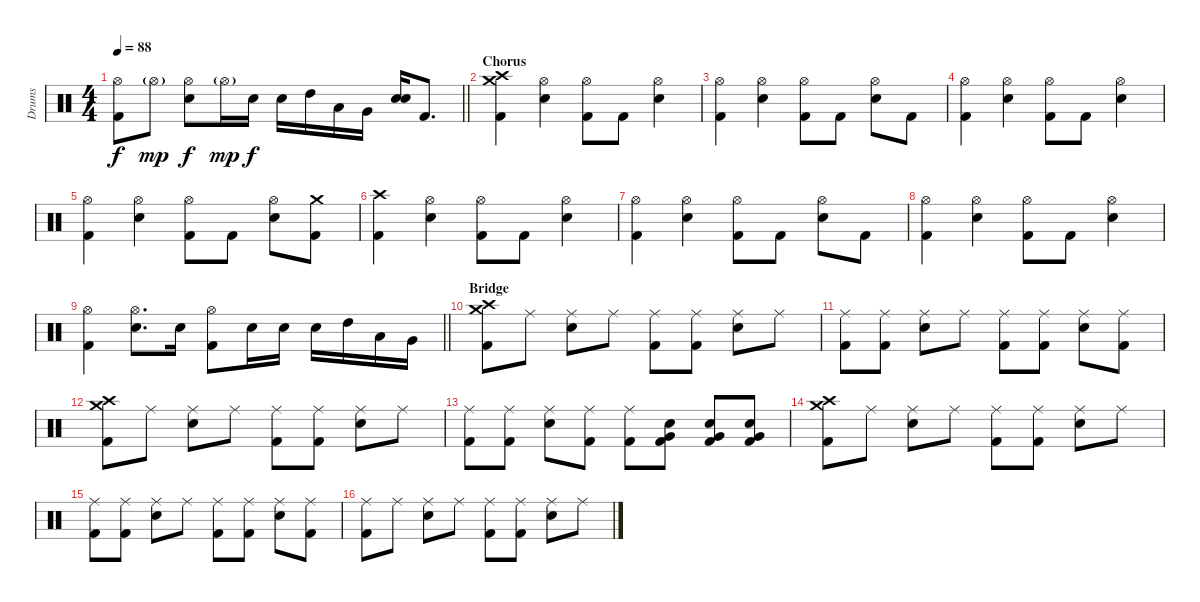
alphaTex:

\track ("Drums" "Drums") {instrument percussion}
\staff {score}
\articulation defaults
\ts (4 4)
\tempo 88
\clef neutral
\barLineRight lightlight
\ks c
("Kick (hit) 2" "Hi-Hat (open)").8{dy f} "Hi-Hat (open)"{g}.8{dy mp} ("Electric Snare (hit)" "Hi-Hat (open)").8{dy f} "Hi-Hat (open)"{g}.16{dy mp} "Electric Snare (hit)".16{dy f} "Electric Snare (hit)".16 "High Tom (hit)".16 "Low Tom (hit)".16 "Very Low Tom (hit)".16 ("Electric Snare (hit)" "Electric Snare (hit)").16 "Kick (hit) 2".8{d} |
\section ("" "Chorus")
("Kick (hit) 2" "Crash high (hit)" "Crash medium (hit)").4 ("Electric Snare (hit)" "Hi-Hat (open)").4 ("Kick (hit) 2" "Hi-Hat (open)").8 "Kick (hit) 2".8 ("Electric Snare (hit)" "Hi-Hat (open)").4 |
("Kick (hit) 2" "Hi-Hat (open)").4 ("Electric Snare (hit)" "Hi-Hat (open)").4 ("Kick (hit) 2" "Hi-Hat (open)").8 "Kick (hit) 2".8 ("Electric Snare (hit)" "Hi-Hat (open)").8 "Kick (hit) 2".8 |
("Kick (hit) 2" "Hi-Hat (open)").4 ("Electric Snare (hit)" "Hi-Hat (open)").4 ("Kick (hit) 2" "Hi-Hat (open)").8 "Kick (hit) 2".8 ("Electric Snare (hit)" "Hi-Hat (open)").4 |
("Kick (hit) 2" "Hi-Hat (open)").4 ("Electric Snare (hit)" "Hi-Hat (open)").4 ("Kick (hit) 2" "Hi-Hat (open)").8 "Kick (hit) 2".8 ("Electric Snare (hit)" "Hi-Hat (open)").8 ("Kick (hit) 2" "Crash medium (hit)").8 |
("Kick (hit) 2" "Crash high (hit)").4 ("Electric Snare (hit)" "Hi-Hat (open)").4 ("Kick (hit) 2" "Hi-Hat (open)").8 "Kick (hit) 2".8 ("Electric Snare (hit)" "Hi-Hat (open)").4 |
("Kick (hit) 2" "Hi-Hat (open)").4 ("Electric Snare (hit)" "Hi-Hat (open)").4 ("Kick (hit) 2" "Hi-Hat (open)").8 "Kick (hit) 2".8 ("Electric Snare (hit)" "Hi-Hat (open)").8 "Kick (hit) 2".8 |
("Kick (hit) 2" "Hi-Hat (open)").4 ("Electric Snare (hit)" "Hi-Hat (open)").4 ("Kick (hit) 2" "Hi-Hat (open)").8 "Kick (hit) 2".8 ("Electric Snare (hit)" "Hi-Hat (open)").4 |
\barLineRight lightlight
("Kick (hit) 2" "Hi-Hat (open)").4 ("Electric Snare (hit)" "Hi-Hat (open)").8{d} "Electric Snare (hit)".16 ("Kick (hit) 2" "Hi-Hat (open)").8 "Electric Snare (hit)".16 "Electric Snare (hit)".16 "Electric Snare (hit)".16 "High Tom (hit)".16 "Low Tom (hit)".16 "Very Low Tom (hit)".16 |
\section ("" "Bridge")
("Kick (hit) 2" "Crash high (hit)" "Crash medium (hit)").8 "Ride (middle)".8 ("Electric Snare (hit)" "Ride (middle)").8 "Ride (middle)".8 ("Kick (hit) 2" "Ride (middle)").8 ("Kick (hit) 2" "Ride (middle)").8 ("Electric Snare (hit)" "Ride (middle)").8 "Ride (middle)".8 |
("Kick (hit) 2" "Ride (middle)").8 ("Kick (hit) 2" "Ride (middle)").8 ("Electric Snare (hit)" "Ride (middle)").8 "Ride (middle)".8 ("Kick (hit) 2" "Ride (middle)").8 ("Kick (hit) 2" "Ride (middle)").8 ("Electric Snare (hit)" "Ride (middle)").8 ("Kick (hit) 2" "Ride (middle)").8 |
("Kick (hit) 2" "Crash high (hit)" "Crash medium (hit)").8 "Ride (middle)".8 ("Electric Snare (hit)" "Ride (middle)").8 "Ride (middle)".8 ("Kick (hit) 2" "Ride (middle)").8 ("Kick (hit) 2" "Ride (middle)").8 ("Electric Snare (hit)" "Ride (middle)").8 "Ride (middle)".8 |
("Kick (hit) 2" "Ride (middle)").8 ("Kick (hit) 2" "Ride (middle)").8 ("Electric Snare (hit)" "Ride (middle)").8 ("Kick (hit) 2" "Ride (middle)").8 ("Kick (hit) 2" "Ride (middle)").8 ("Kick (hit) 2" "Very Low Tom (hit)" "Electric Snare (hit)").8 ("Kick (hit) 2" "Very Low Tom (hit)" "Electric Snare (hit)").8 ("Kick (hit) 2" "Very Low Tom (hit)" "Electric Snare (hit)").8 |
("Kick (hit) 2" "Crash high (hit)" "Crash medium (hit)").8 "Ride (middle)".8 ("Electric Snare (hit)" "Ride (middle)").8 "Ride (middle)".8 ("Kick (hit) 2" "Ride (middle)").8 ("Kick (hit) 2" "Ride (middle)").8 ("Electric Snare (hit)" "Ride (middle)").8 "Ride (middle)".8 |
("Kick (hit) 2" "Ride (middle)").8 ("Kick (hit) 2" "Ride (middle)").8 ("Electric Snare (hit)" "Ride (middle)").8 "Ride (middle)".8 ("Kick (hit) 2" "Ride (middle)").8 ("Kick (hit) 2" "Ride (middle)").8 ("Electric Snare (hit)" "Ride (middle)").8 ("Kick (hit) 2" "Ride (middle)").8 |
("Kick (hit) 2" "Ride (middle)").8 "Ride (middle)".8 ("Electric Snare (hit)" "Ride (middle)").8 "Ride (middle)".8 ("Kick (hit) 2" "Ride (middle)").8 ("Kick (hit) 2" "Ride (middle)").8 ("Electric Snare (hit)" "Ride (middle)").8 "Ride (middle)".8
